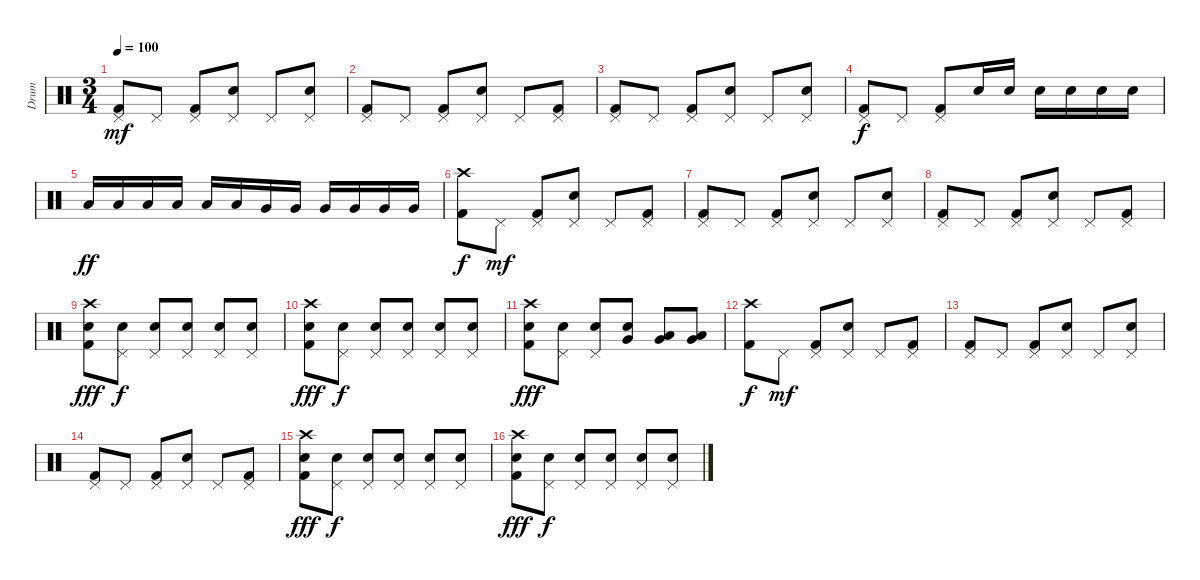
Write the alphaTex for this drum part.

\track ("Drum" "Drum") {instrument percussion}
\staff {score}
\articulation defaults
\ts (3 4)
\tempo 100
\clef neutral
\ks c
("Kick (hit) 2" "Pedal Hi-Hat (hit)").8{dy mf} "Pedal Hi-Hat (hit)".8 ("Kick (hit) 2" "Pedal Hi-Hat (hit)").8 ("Snare (hit) 2" "Pedal Hi-Hat (hit)").8 "Pedal Hi-Hat (hit)".8 ("Snare (hit) 2" "Pedal Hi-Hat (hit)").8 |
("Kick (hit) 2" "Pedal Hi-Hat (hit)").8 "Pedal Hi-Hat (hit)".8 ("Kick (hit) 2" "Pedal Hi-Hat (hit)").8 ("Snare (hit) 2" "Pedal Hi-Hat (hit)").8 "Pedal Hi-Hat (hit)".8 ("Kick (hit) 2" "Pedal Hi-Hat (hit)").8 |
("Kick (hit) 2" "Pedal Hi-Hat (hit)").8 "Pedal Hi-Hat (hit)".8 ("Kick (hit) 2" "Pedal Hi-Hat (hit)").8 ("Snare (hit) 2" "Pedal Hi-Hat (hit)").8 "Pedal Hi-Hat (hit)".8 ("Snare (hit) 2" "Pedal Hi-Hat (hit)").8 |
("Kick (hit) 2" "Pedal Hi-Hat (hit)").8{dy f} "Pedal Hi-Hat (hit)".8 ("Kick (hit) 2" "Pedal Hi-Hat (hit)").8 "Snare (hit) 2".16 "Snare (hit) 2".16 "Snare (hit) 2".16 "Snare (hit) 2".16 "Snare (hit) 2".16 "Snare (hit) 2".16 |
"Low Tom (hit)".16{dy ff} "Low Tom (hit)".16 "Low Tom (hit)".16 "Low Tom (hit)".16 "Low Tom (hit)".16 "Low Tom (hit)".16 "Very Low Tom (hit)".16 "Very Low Tom (hit)".16 "Very Low Tom (hit)".16 "Very Low Tom (hit)".16 "Very Low Tom (hit)".16 "Very Low Tom (hit)".16 |
("Kick (hit) 2" "Crash high (hit)").8{dy f} "Pedal Hi-Hat (hit)".8{dy mf} ("Kick (hit) 2" "Pedal Hi-Hat (hit)").8 ("Snare (hit) 2" "Pedal Hi-Hat (hit)").8 "Pedal Hi-Hat (hit)".8 ("Kick (hit) 2" "Pedal Hi-Hat (hit)").8 |
("Kick (hit) 2" "Pedal Hi-Hat (hit)").8 "Pedal Hi-Hat (hit)".8 ("Kick (hit) 2" "Pedal Hi-Hat (hit)").8 ("Snare (hit) 2" "Pedal Hi-Hat (hit)").8 "Pedal Hi-Hat (hit)".8 ("Snare (hit) 2" "Pedal Hi-Hat (hit)").8 |
("Kick (hit) 2" "Pedal Hi-Hat (hit)").8 "Pedal Hi-Hat (hit)".8 ("Kick (hit) 2" "Pedal Hi-Hat (hit)").8 ("Snare (hit) 2" "Pedal Hi-Hat (hit)").8 "Pedal Hi-Hat (hit)".8 ("Kick (hit) 2" "Pedal Hi-Hat (hit)").8 |
("Kick (hit) 2" "Crash high (hit)" "Snare (hit) 2").8{dy fff} ("Snare (hit) 2" "Pedal Hi-Hat (hit)").8{dy f} ("Snare (hit) 2" "Pedal Hi-Hat (hit)").8 ("Snare (hit) 2" "Pedal Hi-Hat (hit)").8 ("Snare (hit) 2" "Pedal Hi-Hat (hit)").8 ("Snare (hit) 2" "Pedal Hi-Hat (hit)").8 |
("Kick (hit) 2" "Crash high (hit)" "Snare (hit) 2").8{dy fff} ("Snare (hit) 2" "Pedal Hi-Hat (hit)").8{dy f} ("Snare (hit) 2" "Pedal Hi-Hat (hit)").8 ("Snare (hit) 2" "Pedal Hi-Hat (hit)").8 ("Snare (hit) 2" "Pedal Hi-Hat (hit)").8 ("Snare (hit) 2" "Pedal Hi-Hat (hit)").8 |
("Snare (hit) 2" "Kick (hit) 2" "Crash high (hit)").8{dy fff} ("Snare (hit) 2" "Pedal Hi-Hat (hit)").8 ("Snare (hit) 2" "Pedal Hi-Hat (hit)").8 ("Snare (hit) 2" "Very Low Tom (hit)").8{bd 240} ("Low Tom (hit)" "Very Low Tom (hit)").8{bd 240} ("Low Tom (hit)" "Very Low Tom (hit)").8{bd 60} |
("Kick (hit) 2" "Crash high (hit)").8{dy f} "Pedal Hi-Hat (hit)".8{dy mf} ("Kick (hit) 2" "Pedal Hi-Hat (hit)").8 ("Snare (hit) 2" "Pedal Hi-Hat (hit)").8 "Pedal Hi-Hat (hit)".8 ("Kick (hit) 2" "Pedal Hi-Hat (hit)").8 |
("Kick (hit) 2" "Pedal Hi-Hat (hit)").8 "Pedal Hi-Hat (hit)".8 ("Kick (hit) 2" "Pedal Hi-Hat (hit)").8 ("Snare (hit) 2" "Pedal Hi-Hat (hit)").8 "Pedal Hi-Hat (hit)".8 ("Snare (hit) 2" "Pedal Hi-Hat (hit)").8 |
("Kick (hit) 2" "Pedal Hi-Hat (hit)").8 "Pedal Hi-Hat (hit)".8 ("Kick (hit) 2" "Pedal Hi-Hat (hit)").8 ("Snare (hit) 2" "Pedal Hi-Hat (hit)").8 "Pedal Hi-Hat (hit)".8 ("Kick (hit) 2" "Pedal Hi-Hat (hit)").8 |
("Kick (hit) 2" "Crash high (hit)" "Snare (hit) 2").8{dy fff} ("Snare (hit) 2" "Pedal Hi-Hat (hit)").8{dy f} ("Snare (hit) 2" "Pedal Hi-Hat (hit)").8 ("Snare (hit) 2" "Pedal Hi-Hat (hit)").8 ("Snare (hit) 2" "Pedal Hi-Hat (hit)").8 ("Snare (hit) 2" "Pedal Hi-Hat (hit)").8 |
("Kick (hit) 2" "Crash high (hit)" "Snare (hit) 2").8{dy fff} ("Snare (hit) 2" "Pedal Hi-Hat (hit)").8{dy f} ("Snare (hit) 2" "Pedal Hi-Hat (hit)").8 ("Snare (hit) 2" "Pedal Hi-Hat (hit)").8 ("Snare (hit) 2" "Pedal Hi-Hat (hit)").8 ("Snare (hit) 2" "Pedal Hi-Hat (hit)").8
